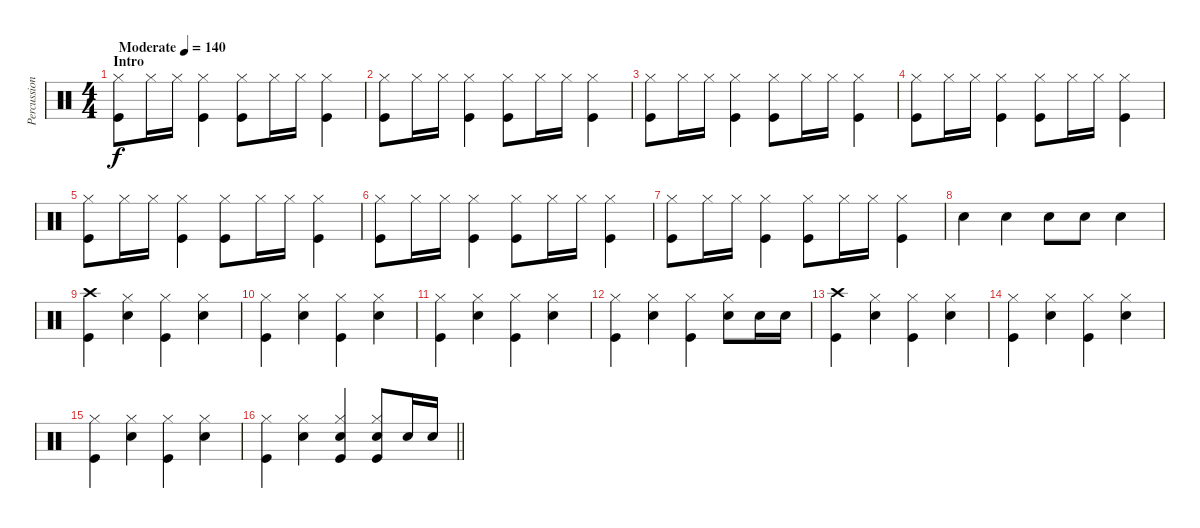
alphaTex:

\track ("Percussion" "Percussion") {instrument percussion}
\staff {score}
\articulation defaults
\ts (4 4)
\section ("" "Intro")
\tempo (140 "Moderate")
\clef neutral
\ks c
("Kick (hit)" "Hi-Hat (closed)").8{dy f} "Hi-Hat (closed)".16 "Hi-Hat (closed)".16 ("Hi-Hat (closed)" "Kick (hit)").4 ("Kick (hit)" "Hi-Hat (closed)").8 "Hi-Hat (closed)".16 "Hi-Hat (closed)".16 ("Hi-Hat (closed)" "Kick (hit)").4 |
("Kick (hit)" "Hi-Hat (closed)").8 "Hi-Hat (closed)".16 "Hi-Hat (closed)".16 ("Hi-Hat (closed)" "Kick (hit)").4 ("Kick (hit)" "Hi-Hat (closed)").8 "Hi-Hat (closed)".16 "Hi-Hat (closed)".16 ("Hi-Hat (closed)" "Kick (hit)").4 |
("Kick (hit)" "Hi-Hat (closed)").8 "Hi-Hat (closed)".16 "Hi-Hat (closed)".16 ("Hi-Hat (closed)" "Kick (hit)").4 ("Kick (hit)" "Hi-Hat (closed)").8 "Hi-Hat (closed)".16 "Hi-Hat (closed)".16 ("Hi-Hat (closed)" "Kick (hit)").4 |
("Kick (hit)" "Hi-Hat (closed)").8 "Hi-Hat (closed)".16 "Hi-Hat (closed)".16 ("Hi-Hat (closed)" "Kick (hit)").4 ("Kick (hit)" "Hi-Hat (closed)").8 "Hi-Hat (closed)".16 "Hi-Hat (closed)".16 ("Hi-Hat (closed)" "Kick (hit)").4 |
("Kick (hit)" "Hi-Hat (closed)").8 "Hi-Hat (closed)".16 "Hi-Hat (closed)".16 ("Hi-Hat (closed)" "Kick (hit)").4 ("Kick (hit)" "Hi-Hat (closed)").8 "Hi-Hat (closed)".16 "Hi-Hat (closed)".16 ("Hi-Hat (closed)" "Kick (hit)").4 |
("Kick (hit)" "Hi-Hat (closed)").8 "Hi-Hat (closed)".16 "Hi-Hat (closed)".16 ("Hi-Hat (closed)" "Kick (hit)").4 ("Kick (hit)" "Hi-Hat (closed)").8 "Hi-Hat (closed)".16 "Hi-Hat (closed)".16 ("Hi-Hat (closed)" "Kick (hit)").4 |
("Kick (hit)" "Hi-Hat (closed)").8 "Hi-Hat (closed)".16 "Hi-Hat (closed)".16 ("Hi-Hat (closed)" "Kick (hit)").4 ("Kick (hit)" "Hi-Hat (closed)").8 "Hi-Hat (closed)".16 "Hi-Hat (closed)".16 ("Hi-Hat (closed)" "Kick (hit)").4 |
"Snare (hit) 2".4 "Snare (hit) 2".4 "Snare (hit) 2".8 "Snare (hit) 2".8 "Snare (hit) 2".4 |
("Kick (hit)" "Crash high (hit)").4 ("Hi-Hat (closed)" "Snare (hit) 2").4 ("Kick (hit)" "Hi-Hat (closed)").4 ("Snare (hit) 2" "Hi-Hat (closed)").4 |
("Kick (hit)" "Hi-Hat (closed)").4 ("Snare (hit) 2" "Hi-Hat (closed)").4 ("Kick (hit)" "Hi-Hat (closed)").4 ("Snare (hit) 2" "Hi-Hat (closed)").4 |
("Kick (hit)" "Hi-Hat (closed)").4 ("Snare (hit) 2" "Hi-Hat (closed)").4 ("Kick (hit)" "Hi-Hat (closed)").4 ("Snare (hit) 2" "Hi-Hat (closed)").4 |
("Kick (hit)" "Hi-Hat (closed)").4 ("Snare (hit) 2" "Hi-Hat (closed)").4 ("Kick (hit)" "Hi-Hat (closed)").4 ("Snare (hit) 2" "Hi-Hat (closed)").8 "Snare (hit) 2".16 "Snare (hit) 2".16 |
("Kick (hit)" "Crash high (hit)").4 ("Hi-Hat (closed)" "Snare (hit) 2").4 ("Kick (hit)" "Hi-Hat (closed)").4 ("Snare (hit) 2" "Hi-Hat (closed)").4 |
("Kick (hit)" "Hi-Hat (closed)").4 ("Snare (hit) 2" "Hi-Hat (closed)").4 ("Kick (hit)" "Hi-Hat (closed)").4 ("Snare (hit) 2" "Hi-Hat (closed)").4 |
("Kick (hit)" "Hi-Hat (closed)").4 ("Snare (hit) 2" "Hi-Hat (closed)").4 ("Kick (hit)" "Hi-Hat (closed)").4 ("Snare (hit) 2" "Hi-Hat (closed)").4 |
\barLineRight lightlight
("Kick (hit)" "Hi-Hat (closed)").4 ("Snare (hit) 2" "Hi-Hat (closed)").4 ("Kick (hit)" "Hi-Hat (closed)" "Snare (hit) 2").4 ("Snare (hit) 2" "Hi-Hat (closed)" "Kick (hit)").8 "Snare (hit) 2".16 "Snare (hit) 2".16
